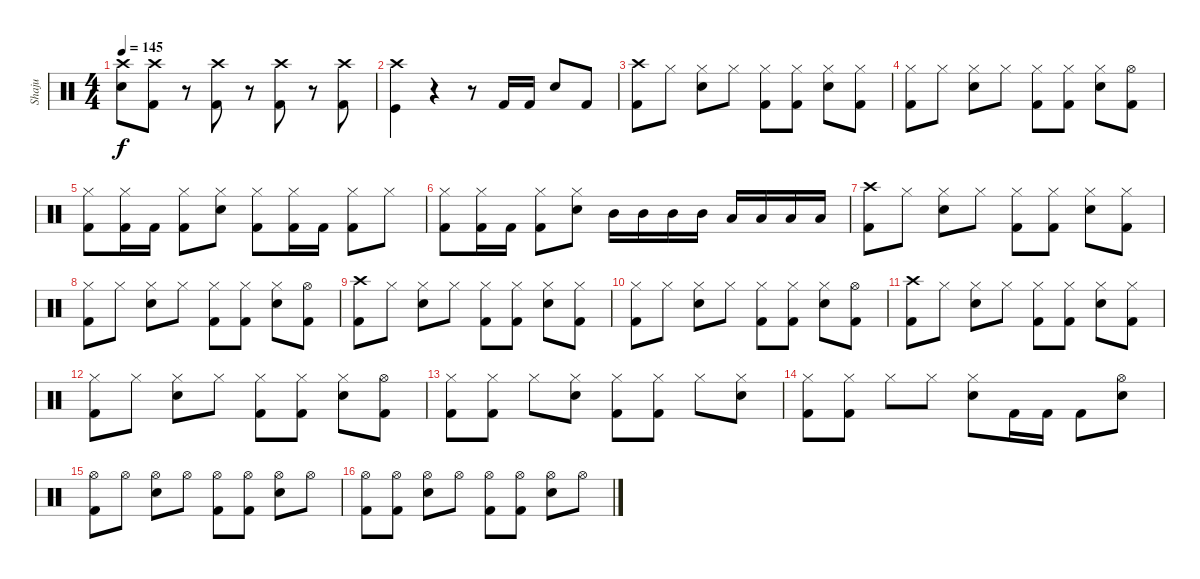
\track ("Shaju" "Shaju") {instrument percussion}
\staff {score}
\articulation defaults
\ts (4 4)
\tempo 145
\clef neutral
\ks c
("Crash high (hit)" "Electric Snare (hit)").8{dy f} ("Crash high (hit)" "Kick (hit) 2").8 r.8 ("Kick (hit) 2" "Crash high (hit)").8 r.8 ("Kick (hit) 2" "Crash high (hit)").8 r.8 ("Crash high (hit)" "Kick (hit) 2").8 |
("Kick (hit)" "Crash high (hit)").4 r.4 r.8 "Kick (hit) 2".16 "Kick (hit) 2".16 "Electric Snare (hit)".8 "Kick (hit) 2".8 |
("Crash high (hit)" "Kick (hit) 2").8 "Hi-Hat (closed)".8 ("Hi-Hat (closed)" "Electric Snare (hit)").8 "Hi-Hat (closed)".8 ("Hi-Hat (closed)" "Kick (hit) 2").8 ("Hi-Hat (closed)" "Kick (hit) 2").8 ("Hi-Hat (closed)" "Electric Snare (hit)").8 ("Hi-Hat (closed)" "Kick (hit) 2").8 |
("Hi-Hat (closed)" "Kick (hit) 2").8 "Hi-Hat (closed)".8 ("Hi-Hat (closed)" "Electric Snare (hit)").8 "Hi-Hat (closed)".8 ("Hi-Hat (closed)" "Kick (hit) 2").8 ("Hi-Hat (closed)" "Kick (hit) 2").8 ("Hi-Hat (closed)" "Electric Snare (hit)").8 ("Hi-Hat (open)" "Kick (hit) 2").8 |
("Hi-Hat (closed)" "Kick (hit) 2").8 ("Hi-Hat (closed)" "Kick (hit) 2").16 "Kick (hit) 2".16 ("Hi-Hat (closed)" "Kick (hit) 2").8 ("Hi-Hat (closed)" "Electric Snare (hit)").8 ("Hi-Hat (closed)" "Kick (hit) 2").8 ("Hi-Hat (closed)" "Kick (hit) 2").16 "Kick (hit) 2".16 ("Hi-Hat (closed)" "Kick (hit) 2").8 "Hi-Hat (closed)".8 |
("Hi-Hat (closed)" "Kick (hit) 2").8 ("Hi-Hat (closed)" "Kick (hit) 2").16 "Kick (hit) 2".16 ("Hi-Hat (closed)" "Kick (hit) 2").8 ("Hi-Hat (closed)" "Electric Snare (hit)").8 "Mid Tom (hit)".16 "Mid Tom (hit)".16 "Mid Tom (hit)".16 "Mid Tom (hit)".16 "Low Tom (hit)".16 "Low Tom (hit)".16 "Low Tom (hit)".16 "Low Tom (hit)".16 |
("Crash high (hit)" "Kick (hit) 2").8 "Hi-Hat (closed)".8 ("Hi-Hat (closed)" "Electric Snare (hit)").8 "Hi-Hat (closed)".8 ("Hi-Hat (closed)" "Kick (hit) 2").8 ("Hi-Hat (closed)" "Kick (hit) 2").8 ("Hi-Hat (closed)" "Electric Snare (hit)").8 ("Hi-Hat (closed)" "Kick (hit) 2").8 |
("Hi-Hat (closed)" "Kick (hit) 2").8 "Hi-Hat (closed)".8 ("Hi-Hat (closed)" "Electric Snare (hit)").8 "Hi-Hat (closed)".8 ("Hi-Hat (closed)" "Kick (hit) 2").8 ("Hi-Hat (closed)" "Kick (hit) 2").8 ("Hi-Hat (closed)" "Electric Snare (hit)").8 ("Hi-Hat (open)" "Kick (hit) 2").8 |
("Crash high (hit)" "Kick (hit) 2").8 "Hi-Hat (closed)".8 ("Hi-Hat (closed)" "Electric Snare (hit)").8 "Hi-Hat (closed)".8 ("Hi-Hat (closed)" "Kick (hit) 2").8 ("Hi-Hat (closed)" "Kick (hit) 2").8 ("Hi-Hat (closed)" "Electric Snare (hit)").8 ("Hi-Hat (closed)" "Kick (hit) 2").8 |
("Hi-Hat (closed)" "Kick (hit) 2").8 "Hi-Hat (closed)".8 ("Hi-Hat (closed)" "Electric Snare (hit)").8 "Hi-Hat (closed)".8 ("Hi-Hat (closed)" "Kick (hit) 2").8 ("Hi-Hat (closed)" "Kick (hit) 2").8 ("Hi-Hat (closed)" "Electric Snare (hit)").8 ("Hi-Hat (open)" "Kick (hit) 2").8 |
("Crash high (hit)" "Kick (hit) 2").8 "Hi-Hat (closed)".8 ("Hi-Hat (closed)" "Electric Snare (hit)").8 "Hi-Hat (closed)".8 ("Hi-Hat (closed)" "Kick (hit) 2").8 ("Hi-Hat (closed)" "Kick (hit) 2").8 ("Hi-Hat (closed)" "Electric Snare (hit)").8 ("Hi-Hat (closed)" "Kick (hit) 2").8 |
("Hi-Hat (closed)" "Kick (hit) 2").8 "Hi-Hat (closed)".8 ("Hi-Hat (closed)" "Electric Snare (hit)").8 "Hi-Hat (closed)".8 ("Hi-Hat (closed)" "Kick (hit) 2").8 ("Hi-Hat (closed)" "Kick (hit) 2").8 ("Hi-Hat (closed)" "Electric Snare (hit)").8 ("Hi-Hat (open)" "Kick (hit) 2").8 |
("Hi-Hat (closed)" "Kick (hit) 2").8 ("Hi-Hat (closed)" "Kick (hit) 2").8 "Hi-Hat (closed)".8 ("Hi-Hat (closed)" "Electric Snare (hit)").8 ("Hi-Hat (closed)" "Kick (hit) 2").8 ("Hi-Hat (closed)" "Kick (hit) 2").8 "Hi-Hat (closed)".8 ("Hi-Hat (closed)" "Electric Snare (hit)").8 |
("Hi-Hat (closed)" "Kick (hit) 2").8 ("Hi-Hat (closed)" "Kick (hit) 2").8 "Hi-Hat (closed)".8 "Hi-Hat (closed)".8 ("Hi-Hat (closed)" "Electric Snare (hit)").8 "Kick (hit) 2".16 "Kick (hit) 2".16 "Kick (hit) 2".8 ("Hi-Hat (open)" "Electric Snare (hit)").8 |
("Hi-Hat (open)" "Kick (hit) 2").8 "Hi-Hat (open)".8 ("Hi-Hat (open)" "Electric Snare (hit)").8 "Hi-Hat (open)".8 ("Hi-Hat (open)" "Kick (hit) 2").8 ("Hi-Hat (open)" "Kick (hit) 2").8 ("Hi-Hat (open)" "Electric Snare (hit)").8 "Hi-Hat (open)".8 |
("Hi-Hat (open)" "Kick (hit) 2").8 ("Hi-Hat (open)" "Kick (hit) 2").8 ("Hi-Hat (open)" "Electric Snare (hit)").8 "Hi-Hat (open)".8 ("Hi-Hat (open)" "Kick (hit) 2").8 ("Hi-Hat (open)" "Kick (hit) 2").8 ("Hi-Hat (open)" "Electric Snare (hit)").8 "Hi-Hat (open)".8
